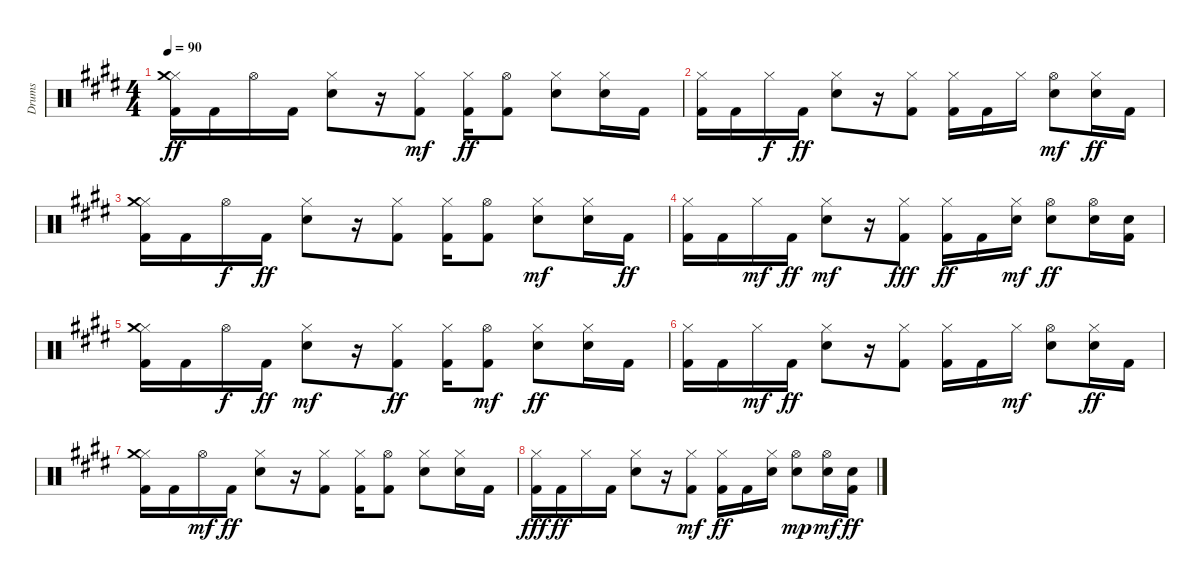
\track ("Drums" "Drums") {instrument percussion}
\staff {score}
\articulation defaults
\ts (4 4)
\tempo 90
\clef neutral
\ks e
("Kick (hit) 2" "Hi-Hat (closed)" "Crash medium (hit)").16{dy ff} "Kick (hit) 2".16 "Hi-Hat (open)".16 "Kick (hit) 2".16 ("Snare (hit) 2" "Hi-Hat (closed)").8 r.16 ("Kick (hit) 2" "Hi-Hat (closed)").8{dy mf} ("Kick (hit) 2" "Hi-Hat (closed)").16{dy ff} ("Kick (hit) 2" "Hi-Hat (open)").8 ("Snare (hit) 2" "Hi-Hat (closed)").8 ("Snare (hit) 2" "Hi-Hat (closed)").16 "Kick (hit) 2".16 |
("Kick (hit) 2" "Hi-Hat (closed)").16 "Kick (hit) 2".16 "Hi-Hat (closed)".16{dy f} "Kick (hit) 2".16{dy ff} ("Snare (hit) 2" "Hi-Hat (closed)").8 r.16 ("Kick (hit) 2" "Hi-Hat (closed)").8 ("Kick (hit) 2" "Hi-Hat (closed)").16 "Kick (hit) 2".16 "Hi-Hat (closed)".16 ("Snare (hit) 2" "Hi-Hat (open)").8{dy mf} ("Snare (hit) 2" "Hi-Hat (closed)").16{dy ff} "Kick (hit) 2".16 |
("Kick (hit) 2" "Hi-Hat (closed)" "Crash medium (hit)").16 "Kick (hit) 2".16 "Hi-Hat (open)".16{dy f} "Kick (hit) 2".16{dy ff} ("Snare (hit) 2" "Hi-Hat (closed)").8 r.16 ("Kick (hit) 2" "Hi-Hat (closed)").8 ("Kick (hit) 2" "Hi-Hat (closed)").16 ("Kick (hit) 2" "Hi-Hat (open)").8 ("Snare (hit) 2" "Hi-Hat (closed)").8{dy mf} ("Snare (hit) 2" "Hi-Hat (closed)").16 "Kick (hit) 2".16{dy ff} |
("Kick (hit) 2" "Hi-Hat (closed)").16 "Kick (hit) 2".16 "Hi-Hat (closed)".16{dy mf} "Kick (hit) 2".16{dy ff} ("Snare (hit) 2" "Hi-Hat (closed)").8{dy mf} r.16 ("Kick (hit) 2" "Hi-Hat (closed)").8{dy fff} ("Kick (hit) 2" "Hi-Hat (closed)").16{dy ff} "Kick (hit) 2".16 ("Snare (hit) 2" "Hi-Hat (closed)").16{dy mf} ("Snare (hit) 2" "Hi-Hat (open)").8{dy ff} ("Snare (hit) 2" "Hi-Hat (open)").16 ("Kick (hit) 2" "Snare (hit) 2").16 |
("Kick (hit) 2" "Hi-Hat (closed)" "Crash medium (hit)").16 "Kick (hit) 2".16 "Hi-Hat (open)".16{dy f} "Kick (hit) 2".16{dy ff} ("Snare (hit) 2" "Hi-Hat (closed)").8{dy mf} r.16 ("Kick (hit) 2" "Hi-Hat (closed)").8{dy ff} ("Kick (hit) 2" "Hi-Hat (closed)").16 ("Kick (hit) 2" "Hi-Hat (open)").8{dy mf} ("Snare (hit) 2" "Hi-Hat (closed)").8{dy ff} ("Snare (hit) 2" "Hi-Hat (closed)").16 "Kick (hit) 2".16 |
("Kick (hit) 2" "Hi-Hat (closed)").16 "Kick (hit) 2".16 "Hi-Hat (closed)".16{dy mf} "Kick (hit) 2".16{dy ff} ("Snare (hit) 2" "Hi-Hat (closed)").8 r.16 ("Kick (hit) 2" "Hi-Hat (closed)").8 ("Kick (hit) 2" "Hi-Hat (closed)").16 "Kick (hit) 2".16 "Hi-Hat (closed)".16{dy mf} ("Snare (hit) 2" "Hi-Hat (open)").8 ("Snare (hit) 2" "Hi-Hat (closed)").16{dy ff} "Kick (hit) 2".16 |
("Kick (hit) 2" "Hi-Hat (closed)" "Crash medium (hit)").16 "Kick (hit) 2".16 "Hi-Hat (open)".16{dy mf} "Kick (hit) 2".16{dy ff} ("Snare (hit) 2" "Hi-Hat (closed)").8 r.16 ("Kick (hit) 2" "Hi-Hat (closed)").8 ("Kick (hit) 2" "Hi-Hat (closed)").16 ("Kick (hit) 2" "Hi-Hat (open)").8 ("Snare (hit) 2" "Hi-Hat (closed)").8 ("Snare (hit) 2" "Hi-Hat (closed)").16 "Kick (hit) 2".16 |
("Kick (hit) 2" "Hi-Hat (closed)").16{dy fff} "Kick (hit) 2".16{dy ff} "Hi-Hat (closed)".16 "Kick (hit) 2".16 ("Snare (hit) 2" "Hi-Hat (closed)").8 r.16 ("Kick (hit) 2" "Hi-Hat (closed)").8{dy mf} ("Kick (hit) 2" "Hi-Hat (closed)").16{dy ff} "Kick (hit) 2".16 ("Snare (hit) 2" "Hi-Hat (closed)").16 ("Snare (hit) 2" "Hi-Hat (open)").8{dy mp} ("Snare (hit) 2" "Hi-Hat (open)").16{dy mf} ("Kick (hit) 2" "Snare (hit) 2").16{dy ff}
